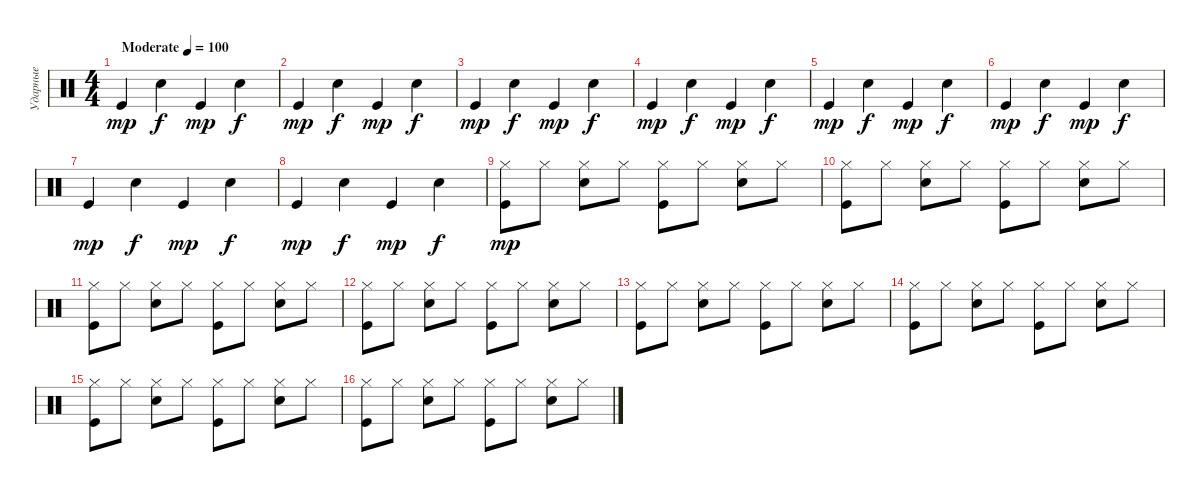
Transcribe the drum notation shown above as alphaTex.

\track ("Ударные" "Ударные") {instrument percussion}
\staff {score}
\articulation defaults
\ts (4 4)
\tempo (100 "Moderate")
\clef neutral
\ks c "Kick (hit)".4{dy mp} "Snare (hit) 2".4{dy f} "Kick (hit)".4{dy mp} "Snare (hit) 2".4{dy f}
|
"Kick (hit)".4{dy mp} "Snare (hit) 2".4{dy f} "Kick (hit)".4{dy mp} "Snare (hit) 2".4{dy f} |
"Kick (hit)".4{dy mp} "Snare (hit) 2".4{dy f} "Kick (hit)".4{dy mp} "Snare (hit) 2".4{dy f} |
"Kick (hit)".4{dy mp} "Snare (hit) 2".4{dy f} "Kick (hit)".4{dy mp} "Snare (hit) 2".4{dy f} |
"Kick (hit)".4{dy mp} "Snare (hit) 2".4{dy f} "Kick (hit)".4{dy mp} "Snare (hit) 2".4{dy f} |
"Kick (hit)".4{dy mp} "Snare (hit) 2".4{dy f} "Kick (hit)".4{dy mp} "Snare (hit) 2".4{dy f} |
"Kick (hit)".4{dy mp} "Snare (hit) 2".4{dy f} "Kick (hit)".4{dy mp} "Snare (hit) 2".4{dy f} |
"Kick (hit)".4{dy mp} "Snare (hit) 2".4{dy f} "Kick (hit)".4{dy mp} "Snare (hit) 2".4{dy f} |
("Hi-Hat (closed)" "Kick (hit)").8{dy mp} "Hi-Hat (closed)".8 ("Hi-Hat (closed)" "Snare (hit) 2").8 "Hi-Hat (closed)".8 ("Hi-Hat (closed)" "Kick (hit)").8 "Hi-Hat (closed)".8 ("Hi-Hat (closed)" "Snare (hit) 2").8 "Hi-Hat (closed)".8 |
("Hi-Hat (closed)" "Kick (hit)").8 "Hi-Hat (closed)".8 ("Hi-Hat (closed)" "Snare (hit) 2").8 "Hi-Hat (closed)".8 ("Hi-Hat (closed)" "Kick (hit)").8 "Hi-Hat (closed)".8 ("Hi-Hat (closed)" "Snare (hit) 2").8 "Hi-Hat (closed)".8 |
("Hi-Hat (closed)" "Kick (hit)").8 "Hi-Hat (closed)".8 ("Hi-Hat (closed)" "Snare (hit) 2").8 "Hi-Hat (closed)".8 ("Hi-Hat (closed)" "Kick (hit)").8 "Hi-Hat (closed)".8 ("Hi-Hat (closed)" "Snare (hit) 2").8 "Hi-Hat (closed)".8 |
("Hi-Hat (closed)" "Kick (hit)").8 "Hi-Hat (closed)".8 ("Hi-Hat (closed)" "Snare (hit) 2").8 "Hi-Hat (closed)".8 ("Hi-Hat (closed)" "Kick (hit)").8 "Hi-Hat (closed)".8 ("Hi-Hat (closed)" "Snare (hit) 2").8 "Hi-Hat (closed)".8 |
("Hi-Hat (closed)" "Kick (hit)").8 "Hi-Hat (closed)".8 ("Hi-Hat (closed)" "Snare (hit) 2").8 "Hi-Hat (closed)".8 ("Hi-Hat (closed)" "Kick (hit)").8 "Hi-Hat (closed)".8 ("Hi-Hat (closed)" "Snare (hit) 2").8 "Hi-Hat (closed)".8 |
("Hi-Hat (closed)" "Kick (hit)").8 "Hi-Hat (closed)".8 ("Hi-Hat (closed)" "Snare (hit) 2").8 "Hi-Hat (closed)".8 ("Hi-Hat (closed)" "Kick (hit)").8 "Hi-Hat (closed)".8 ("Hi-Hat (closed)" "Snare (hit) 2").8 "Hi-Hat (closed)".8 |
("Hi-Hat (closed)" "Kick (hit)").8 "Hi-Hat (closed)".8 ("Hi-Hat (closed)" "Snare (hit) 2").8 "Hi-Hat (closed)".8 ("Hi-Hat (closed)" "Kick (hit)").8 "Hi-Hat (closed)".8 ("Hi-Hat (closed)" "Snare (hit) 2").8 "Hi-Hat (closed)".8 |
("Hi-Hat (closed)" "Kick (hit)").8 "Hi-Hat (closed)".8 ("Hi-Hat (closed)" "Snare (hit) 2").8 "Hi-Hat (closed)".8 ("Hi-Hat (closed)" "Kick (hit)").8 "Hi-Hat (closed)".8 ("Hi-Hat (closed)" "Snare (hit) 2").8 "Hi-Hat (closed)".8
